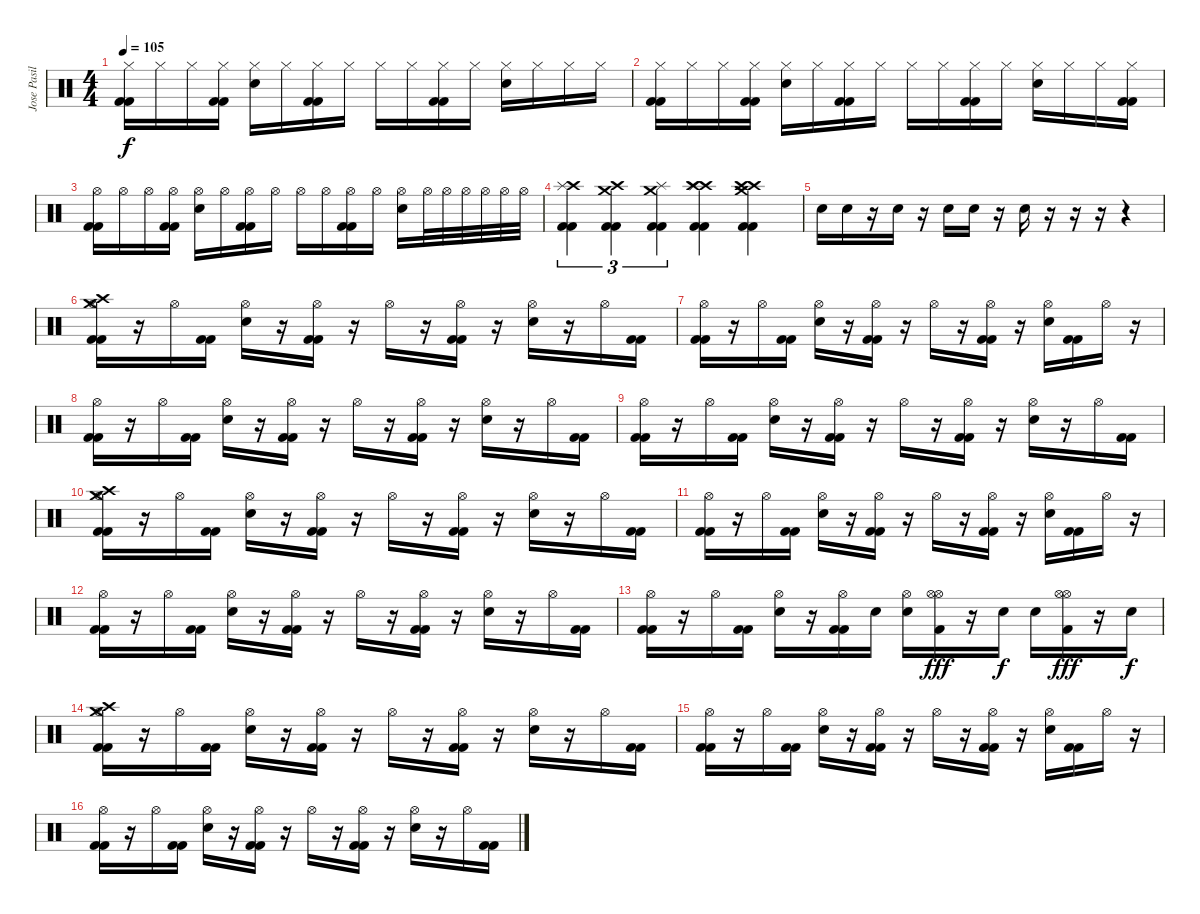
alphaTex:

\track ("Jose Pasillas" "Jose Pasil") {instrument percussion}
\staff {score}
\articulation defaults
\ts (4 4)
\tempo 105
\clef neutral
\ks c
("Hi-Hat (closed)" "Kick (hit) 2" "Kick (hit) 2").16{dy f} "Hi-Hat (closed)".16 "Hi-Hat (closed)".16 ("Hi-Hat (closed)" "Kick (hit) 2" "Kick (hit) 2").16 ("Hi-Hat (closed)" "Electric Snare (hit)").16 "Hi-Hat (closed)".16 ("Hi-Hat (closed)" "Kick (hit) 2" "Kick (hit) 2").16 "Hi-Hat (closed)".16 "Hi-Hat (closed)".16 "Hi-Hat (closed)".16 ("Hi-Hat (closed)" "Kick (hit) 2" "Kick (hit) 2").16 "Hi-Hat (closed)".16 ("Hi-Hat (closed)" "Electric Snare (hit)").16 "Hi-Hat (closed)".16 "Hi-Hat (closed)".16 "Hi-Hat (closed)".16 |
("Hi-Hat (closed)" "Kick (hit) 2" "Kick (hit) 2").16 "Hi-Hat (closed)".16 "Hi-Hat (closed)".16 ("Hi-Hat (closed)" "Kick (hit) 2" "Kick (hit) 2").16 ("Hi-Hat (closed)" "Electric Snare (hit)").16 "Hi-Hat (closed)".16 ("Hi-Hat (closed)" "Kick (hit) 2" "Kick (hit) 2").16 "Hi-Hat (closed)".16 "Hi-Hat (closed)".16 "Hi-Hat (closed)".16 ("Hi-Hat (closed)" "Kick (hit) 2" "Kick (hit) 2").16 "Hi-Hat (closed)".16 ("Hi-Hat (closed)" "Electric Snare (hit)").16 "Hi-Hat (closed)".16 "Hi-Hat (closed)".16 ("Hi-Hat (closed)" "Kick (hit) 2" "Kick (hit) 2").16 |
("Hi-Hat (open)" "Kick (hit) 2" "Kick (hit) 2").16 "Hi-Hat (open)".16 "Hi-Hat (open)".16 ("Hi-Hat (open)" "Kick (hit) 2" "Kick (hit) 2").16 ("Hi-Hat (open)" "Electric Snare (hit)").16 "Hi-Hat (open)".16 ("Hi-Hat (open)" "Kick (hit) 2" "Kick (hit) 2").16 "Hi-Hat (open)".16 "Hi-Hat (open)".16 "Hi-Hat (open)".16 ("Hi-Hat (open)" "Kick (hit) 2" "Kick (hit) 2").16 "Hi-Hat (open)".16 ("Hi-Hat (open)" "Electric Snare (hit)").16 "Hi-Hat (open)".32 "Hi-Hat (open)".32 "Hi-Hat (open)".32 "Hi-Hat (open)".32 "Hi-Hat (open)".32 "Hi-Hat (open)".32 |
("Crash high (hit)" "Splash (hit)" "Kick (hit) 2" "Kick (hit) 2").4{tu (3 2)} ("Crash medium (hit)" "Crash high (hit)" "Kick (hit) 2" "Kick (hit) 2").4{tu (3 2)} ("Splash (hit)" "Crash medium (hit)" "Kick (hit) 2" "Kick (hit) 2").4{tu (3 2)} ("Crash high (hit)" "Crash high (hit)" "Splash (hit)" "Kick (hit) 2" "Kick (hit) 2").4 ("Crash high (hit)" "Crash high (hit)" "Crash medium (hit)" "Kick (hit) 2" "Kick (hit) 2").4 |
"Electric Snare (hit)".16 "Electric Snare (hit)".16 r.16 "Electric Snare (hit)".16 r.16 "Electric Snare (hit)".16 "Electric Snare (hit)".16 r.16 "Electric Snare (hit)".16 r.16 r.16 r.16 r.4 |
("Hi-Hat (open)" "Crash high (hit)" "Crash medium (hit)" "Kick (hit) 2" "Kick (hit) 2").16 r.16 "Hi-Hat (open)".16 ("Kick (hit) 2" "Kick (hit) 2").16 ("Hi-Hat (open)" "Electric Snare (hit)").16 r.16 ("Hi-Hat (open)" "Kick (hit) 2" "Kick (hit) 2").16 r.16 "Hi-Hat (open)".16 r.16 ("Hi-Hat (open)" "Kick (hit) 2" "Kick (hit) 2").16 r.16 ("Hi-Hat (open)" "Electric Snare (hit)").16 r.16 "Hi-Hat (open)".16 ("Kick (hit) 2" "Kick (hit) 2").16 |
("Hi-Hat (open)" "Kick (hit) 2" "Kick (hit) 2").16 r.16 "Hi-Hat (open)".16 ("Kick (hit) 2" "Kick (hit) 2").16 ("Hi-Hat (open)" "Electric Snare (hit)").16 r.16 ("Hi-Hat (open)" "Kick (hit) 2" "Kick (hit) 2").16 r.16 "Hi-Hat (open)".16 r.16 ("Hi-Hat (open)" "Kick (hit) 2" "Kick (hit) 2").16 r.16 ("Hi-Hat (open)" "Electric Snare (hit)").16 ("Kick (hit) 2" "Kick (hit) 2").16 "Hi-Hat (open)".16 r.16 |
("Hi-Hat (open)" "Kick (hit) 2" "Kick (hit) 2").16 r.16 "Hi-Hat (open)".16 ("Kick (hit) 2" "Kick (hit) 2").16 ("Hi-Hat (open)" "Electric Snare (hit)").16 r.16 ("Hi-Hat (open)" "Kick (hit) 2" "Kick (hit) 2").16 r.16 "Hi-Hat (open)".16 r.16 ("Hi-Hat (open)" "Kick (hit) 2" "Kick (hit) 2").16 r.16 ("Hi-Hat (open)" "Electric Snare (hit)").16 r.16 "Hi-Hat (open)".16 ("Kick (hit) 2" "Kick (hit) 2").16 |
("Hi-Hat (open)" "Kick (hit) 2" "Kick (hit) 2").16 r.16 "Hi-Hat (open)".16 ("Kick (hit) 2" "Kick (hit) 2").16 ("Hi-Hat (open)" "Electric Snare (hit)").16 r.16 ("Hi-Hat (open)" "Kick (hit) 2" "Kick (hit) 2").16 r.16 "Hi-Hat (open)".16 r.16 ("Hi-Hat (open)" "Kick (hit) 2" "Kick (hit) 2").16 r.16 ("Hi-Hat (open)" "Electric Snare (hit)").16 r.16 "Hi-Hat (open)".16 ("Kick (hit) 2" "Kick (hit) 2").16 |
("Hi-Hat (open)" "Crash high (hit)" "Crash medium (hit)" "Kick (hit) 2" "Kick (hit) 2").16 r.16 "Hi-Hat (open)".16 ("Kick (hit) 2" "Kick (hit) 2").16 ("Hi-Hat (open)" "Electric Snare (hit)").16 r.16 ("Hi-Hat (open)" "Kick (hit) 2" "Kick (hit) 2").16 r.16 "Hi-Hat (open)".16 r.16 ("Hi-Hat (open)" "Kick (hit) 2" "Kick (hit) 2").16 r.16 ("Hi-Hat (open)" "Electric Snare (hit)").16 r.16 "Hi-Hat (open)".16 ("Kick (hit) 2" "Kick (hit) 2").16 |
("Hi-Hat (open)" "Kick (hit) 2" "Kick (hit) 2").16 r.16 "Hi-Hat (open)".16 ("Kick (hit) 2" "Kick (hit) 2").16 ("Hi-Hat (open)" "Electric Snare (hit)").16 r.16 ("Hi-Hat (open)" "Kick (hit) 2" "Kick (hit) 2").16 r.16 "Hi-Hat (open)".16 r.16 ("Hi-Hat (open)" "Kick (hit) 2" "Kick (hit) 2").16 r.16 ("Hi-Hat (open)" "Electric Snare (hit)").16 ("Kick (hit) 2" "Kick (hit) 2").16 "Hi-Hat (open)".16 r.16 |
("Hi-Hat (open)" "Kick (hit) 2" "Kick (hit) 2").16 r.16 "Hi-Hat (open)".16 ("Kick (hit) 2" "Kick (hit) 2").16 ("Hi-Hat (open)" "Electric Snare (hit)").16 r.16 ("Hi-Hat (open)" "Kick (hit) 2" "Kick (hit) 2").16 r.16 "Hi-Hat (open)".16 r.16 ("Hi-Hat (open)" "Kick (hit) 2" "Kick (hit) 2").16 r.16 ("Hi-Hat (open)" "Electric Snare (hit)").16 r.16 "Hi-Hat (open)".16 ("Kick (hit) 2" "Kick (hit) 2").16 |
("Hi-Hat (open)" "Kick (hit) 2" "Kick (hit) 2").16 r.16 "Hi-Hat (open)".16 ("Kick (hit) 2" "Kick (hit) 2").16 ("Hi-Hat (open)" "Electric Snare (hit)").16 r.16 ("Hi-Hat (open)" "Kick (hit) 2" "Kick (hit) 2").16 "Electric Snare (hit)".16 ("Hi-Hat (open)" "Electric Snare (hit)").16 ("Hi-Hat (open)" "Hi-Hat (open)" "Kick (hit) 2").16{dy fff} r.16 "Electric Snare (hit)".16{dy f} "Electric Snare (hit)".16 ("Hi-Hat (open)" "Hi-Hat (open)" "Kick (hit) 2").16{dy fff} r.16 "Electric Snare (hit)".16{dy f} |
("Hi-Hat (open)" "Crash high (hit)" "Crash medium (hit)" "Kick (hit) 2" "Kick (hit) 2").16 r.16 "Hi-Hat (open)".16 ("Kick (hit) 2" "Kick (hit) 2").16 ("Hi-Hat (open)" "Electric Snare (hit)").16 r.16 ("Hi-Hat (open)" "Kick (hit) 2" "Kick (hit) 2").16 r.16 "Hi-Hat (open)".16 r.16 ("Hi-Hat (open)" "Kick (hit) 2" "Kick (hit) 2").16 r.16 ("Hi-Hat (open)" "Electric Snare (hit)").16 r.16 "Hi-Hat (open)".16 ("Kick (hit) 2" "Kick (hit) 2").16 |
("Hi-Hat (open)" "Kick (hit) 2" "Kick (hit) 2").16 r.16 "Hi-Hat (open)".16 ("Kick (hit) 2" "Kick (hit) 2").16 ("Hi-Hat (open)" "Electric Snare (hit)").16 r.16 ("Hi-Hat (open)" "Kick (hit) 2" "Kick (hit) 2").16 r.16 "Hi-Hat (open)".16 r.16 ("Hi-Hat (open)" "Kick (hit) 2" "Kick (hit) 2").16 r.16 ("Hi-Hat (open)" "Electric Snare (hit)").16 ("Kick (hit) 2" "Kick (hit) 2").16 "Hi-Hat (open)".16 r.16 |
("Hi-Hat (open)" "Kick (hit) 2" "Kick (hit) 2").16 r.16 "Hi-Hat (open)".16 ("Kick (hit) 2" "Kick (hit) 2").16 ("Hi-Hat (open)" "Electric Snare (hit)").16 r.16 ("Hi-Hat (open)" "Kick (hit) 2" "Kick (hit) 2").16 r.16 "Hi-Hat (open)".16 r.16 ("Hi-Hat (open)" "Kick (hit) 2" "Kick (hit) 2").16 r.16 ("Hi-Hat (open)" "Electric Snare (hit)").16 r.16 "Hi-Hat (open)".16 ("Kick (hit) 2" "Kick (hit) 2").16
